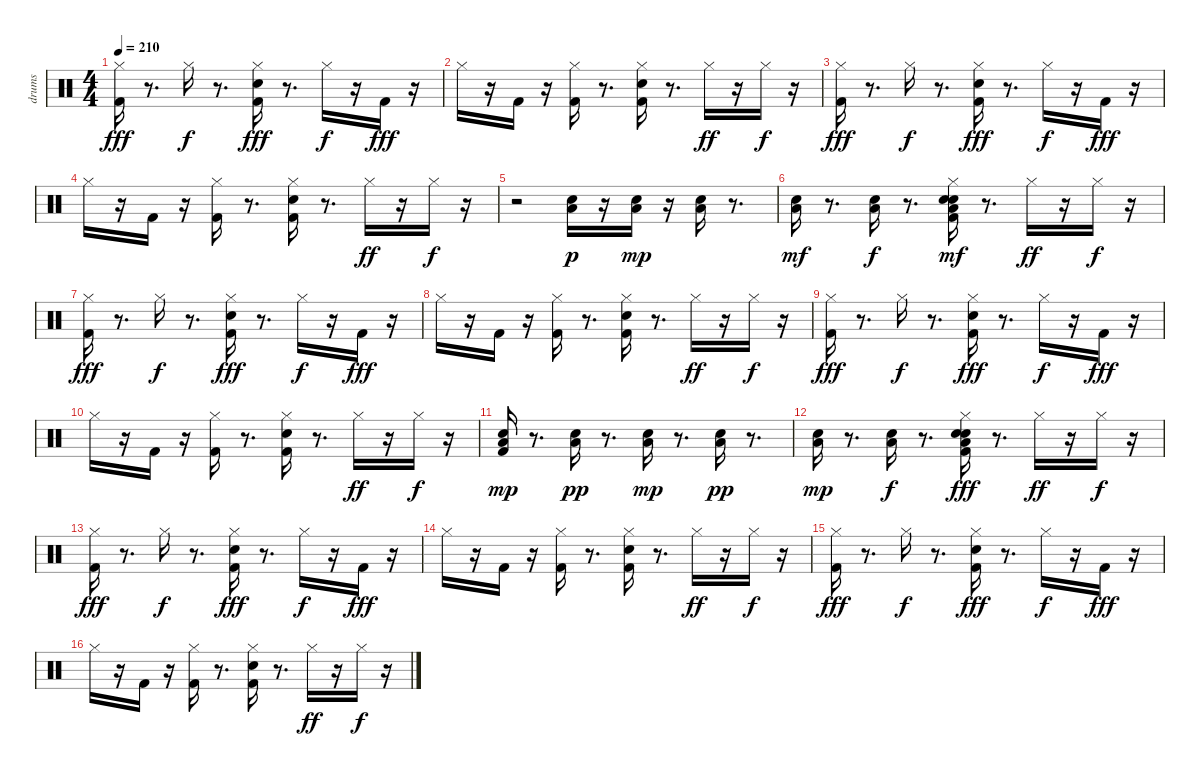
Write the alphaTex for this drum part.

\track ("drums" "drums") {instrument percussion}
\staff {score}
\articulation defaults
\ts (4 4)
\tempo 210
\clef neutral
\ks c
("Hi-Hat (closed)" "Kick (hit) 2").16{dy fff} r.8{d} "Hi-Hat (closed)".16{dy f} r.8{d} ("Electric Snare (hit)" "Hi-Hat (closed)" "Kick (hit) 2").16{dy fff} r.8{d} "Hi-Hat (closed)".16{dy f} r.16 "Kick (hit) 2".16{dy fff} r.16 |
"Hi-Hat (closed)".16 r.16 "Kick (hit) 2".16 r.16 ("Hi-Hat (closed)" "Kick (hit) 2").16 r.8{d} ("Electric Snare (hit)" "Hi-Hat (closed)" "Kick (hit) 2").16 r.8{d} "Hi-Hat (closed)".16{dy ff} r.16 "Hi-Hat (closed)".16{dy f} r.16 |
("Hi-Hat (closed)" "Kick (hit) 2").16{dy fff} r.8{d} "Hi-Hat (closed)".16{dy f} r.8{d} ("Electric Snare (hit)" "Hi-Hat (closed)" "Kick (hit) 2").16{dy fff} r.8{d} "Hi-Hat (closed)".16{dy f} r.16 "Kick (hit) 2".16{dy fff} r.16 |
"Hi-Hat (closed)".16 r.16 "Kick (hit) 2".16 r.16 ("Hi-Hat (closed)" "Kick (hit) 2").16 r.8{d} ("Electric Snare (hit)" "Hi-Hat (closed)" "Kick (hit) 2").16 r.8{d} "Hi-Hat (closed)".16{dy ff} r.16 "Hi-Hat (closed)".16{dy f} r.16 |
r.2 ("Low Floor Tom (hit)" "Snare (hit) 2").16{dy p} r.16 ("Low Floor Tom (hit)" "Snare (hit) 2").16{dy mp} r.16 ("Low Floor Tom (hit)" "Snare (hit) 2").16 r.8{d} |
("Snare (hit) 2" "Low Floor Tom (hit)").16{dy mf} r.8{d} ("Low Floor Tom (hit)" "Snare (hit) 2").16{dy f} r.8{d} ("Electric Snare (hit)" "Hi-Hat (closed)" "Kick (hit) 2" "Snare (hit) 2" "Low Floor Tom (hit)").16{dy mf} r.8{d} "Hi-Hat (closed)".16{dy ff} r.16 "Hi-Hat (closed)".16{dy f} r.16 |
("Hi-Hat (closed)" "Kick (hit) 2").16{dy fff} r.8{d} "Hi-Hat (closed)".16{dy f} r.8{d} ("Electric Snare (hit)" "Hi-Hat (closed)" "Kick (hit) 2").16{dy fff} r.8{d} "Hi-Hat (closed)".16{dy f} r.16 "Kick (hit) 2".16{dy fff} r.16 |
"Hi-Hat (closed)".16 r.16 "Kick (hit) 2".16 r.16 ("Hi-Hat (closed)" "Kick (hit) 2").16 r.8{d} ("Electric Snare (hit)" "Hi-Hat (closed)" "Kick (hit) 2").16 r.8{d} "Hi-Hat (closed)".16{dy ff} r.16 "Hi-Hat (closed)".16{dy f} r.16 |
("Hi-Hat (closed)" "Kick (hit) 2").16{dy fff} r.8{d} "Hi-Hat (closed)".16{dy f} r.8{d} ("Electric Snare (hit)" "Hi-Hat (closed)" "Kick (hit) 2").16{dy fff} r.8{d} "Hi-Hat (closed)".16{dy f} r.16 "Kick (hit) 2".16{dy fff} r.16 |
"Hi-Hat (closed)".16 r.16 "Kick (hit) 2".16 r.16 ("Hi-Hat (closed)" "Kick (hit) 2").16 r.8{d} ("Electric Snare (hit)" "Hi-Hat (closed)" "Kick (hit) 2").16 r.8{d} "Hi-Hat (closed)".16{dy ff} r.16 "Hi-Hat (closed)".16{dy f} r.16 |
("Kick (hit) 2" "Snare (hit) 2" "Low Floor Tom (hit)").16{dy mp} r.8{d} ("Low Floor Tom (hit)" "Snare (hit) 2").16{dy pp} r.8{d} ("Snare (hit) 2" "Low Floor Tom (hit)").16{dy mp} r.8{d} ("Low Floor Tom (hit)" "Snare (hit) 2").16{dy pp} r.8{d} |
("Snare (hit) 2" "Low Floor Tom (hit)").16{dy mp} r.8{d} ("Snare (hit) 2" "Low Floor Tom (hit)").16{dy f} r.8{d} ("Electric Snare (hit)" "Hi-Hat (closed)" "Kick (hit) 2" "Snare (hit) 2" "Low Floor Tom (hit)").16{dy fff} r.8{d} "Hi-Hat (closed)".16{dy ff} r.16 "Hi-Hat (closed)".16{dy f} r.16 |
("Hi-Hat (closed)" "Kick (hit) 2").16{dy fff} r.8{d} "Hi-Hat (closed)".16{dy f} r.8{d} ("Electric Snare (hit)" "Hi-Hat (closed)" "Kick (hit) 2").16{dy fff} r.8{d} "Hi-Hat (closed)".16{dy f} r.16 "Kick (hit) 2".16{dy fff} r.16 |
"Hi-Hat (closed)".16 r.16 "Kick (hit) 2".16 r.16 ("Hi-Hat (closed)" "Kick (hit) 2").16 r.8{d} ("Electric Snare (hit)" "Hi-Hat (closed)" "Kick (hit) 2").16 r.8{d} "Hi-Hat (closed)".16{dy ff} r.16 "Hi-Hat (closed)".16{dy f} r.16 |
("Hi-Hat (closed)" "Kick (hit) 2").16{dy fff} r.8{d} "Hi-Hat (closed)".16{dy f} r.8{d} ("Electric Snare (hit)" "Hi-Hat (closed)" "Kick (hit) 2").16{dy fff} r.8{d} "Hi-Hat (closed)".16{dy f} r.16 "Kick (hit) 2".16{dy fff} r.16 |
"Hi-Hat (closed)".16 r.16 "Kick (hit) 2".16 r.16 ("Hi-Hat (closed)" "Kick (hit) 2").16 r.8{d} ("Electric Snare (hit)" "Hi-Hat (closed)" "Kick (hit) 2").16 r.8{d} "Hi-Hat (closed)".16{dy ff} r.16 "Hi-Hat (closed)".16{dy f} r.16
